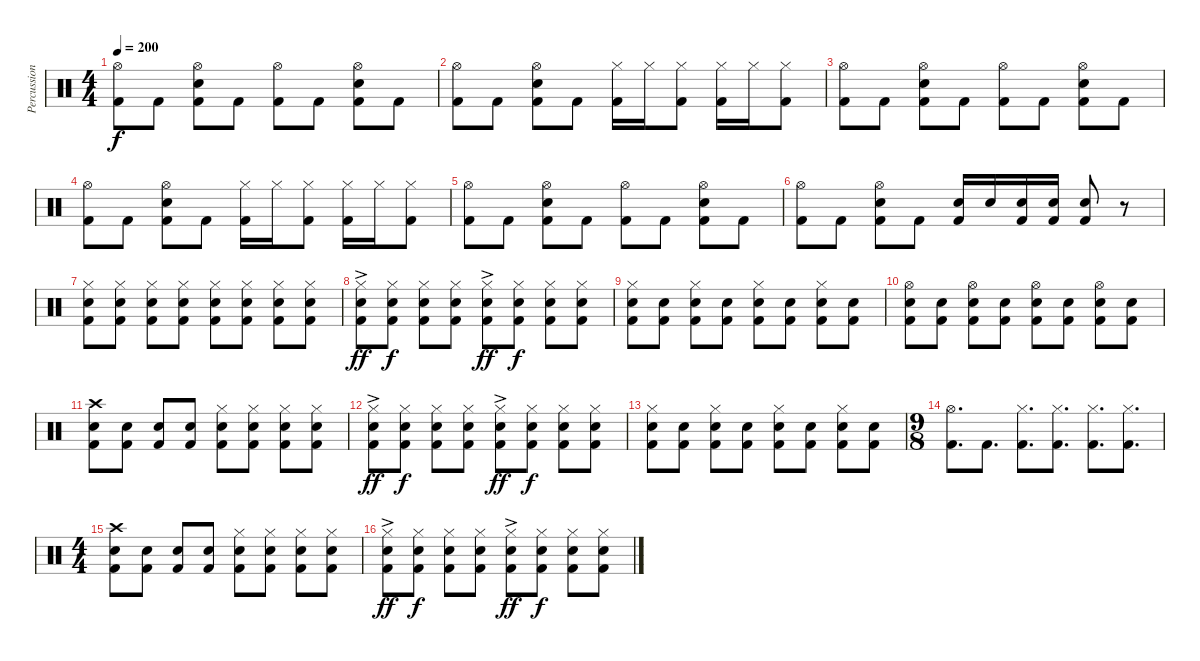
\track ("Percussions" "Percussion") {instrument percussion}
\staff {score}
\articulation defaults
\ts (4 4)
\tempo 200
\clef neutral
\ks c
("Hi-Hat (open)" "Kick (hit) 2").8{dy f} "Kick (hit) 2".8 ("Hi-Hat (open)" "Electric Snare (hit)" "Kick (hit) 2").8 "Kick (hit) 2".8 ("Hi-Hat (open)" "Kick (hit) 2").8 "Kick (hit) 2".8 ("Hi-Hat (open)" "Electric Snare (hit)" "Kick (hit) 2").8 "Kick (hit) 2".8 |
("Hi-Hat (open)" "Kick (hit) 2").8 "Kick (hit) 2".8 ("Hi-Hat (open)" "Electric Snare (hit)" "Kick (hit) 2").8 "Kick (hit) 2".8 ("Hi-Hat (closed)" "Kick (hit) 2").16 "Hi-Hat (closed)".16 ("Hi-Hat (closed)" "Kick (hit) 2").8 ("Hi-Hat (closed)" "Kick (hit) 2").16 "Hi-Hat (closed)".16 ("Hi-Hat (closed)" "Kick (hit) 2").8 |
("Hi-Hat (open)" "Kick (hit) 2").8 "Kick (hit) 2".8 ("Hi-Hat (open)" "Electric Snare (hit)" "Kick (hit) 2").8 "Kick (hit) 2".8 ("Hi-Hat (open)" "Kick (hit) 2").8 "Kick (hit) 2".8 ("Hi-Hat (open)" "Electric Snare (hit)" "Kick (hit) 2").8 "Kick (hit) 2".8 |
("Hi-Hat (open)" "Kick (hit) 2").8 "Kick (hit) 2".8 ("Hi-Hat (open)" "Electric Snare (hit)" "Kick (hit) 2").8 "Kick (hit) 2".8 ("Hi-Hat (closed)" "Kick (hit) 2").16 "Hi-Hat (closed)".16 ("Hi-Hat (closed)" "Kick (hit) 2").8 ("Hi-Hat (closed)" "Kick (hit) 2").16 "Hi-Hat (closed)".16 ("Hi-Hat (closed)" "Kick (hit) 2").8 |
("Hi-Hat (open)" "Kick (hit) 2").8 "Kick (hit) 2".8 ("Hi-Hat (open)" "Electric Snare (hit)" "Kick (hit) 2").8 "Kick (hit) 2".8 ("Hi-Hat (open)" "Kick (hit) 2").8 "Kick (hit) 2".8 ("Hi-Hat (open)" "Electric Snare (hit)" "Kick (hit) 2").8 "Kick (hit) 2".8 |
("Hi-Hat (open)" "Kick (hit) 2").8 "Kick (hit) 2".8 ("Hi-Hat (open)" "Electric Snare (hit)" "Kick (hit) 2").8 "Kick (hit) 2".8 ("Electric Snare (hit)" "Kick (hit) 2").16 "Electric Snare (hit)".16 ("Electric Snare (hit)" "Kick (hit) 2").16 ("Electric Snare (hit)" "Kick (hit) 2").16 ("Electric Snare (hit)" "Kick (hit) 2").8 r.8 |
("Hi-Hat (closed)" "Electric Snare (hit)" "Kick (hit) 2").8 ("Hi-Hat (closed)" "Electric Snare (hit)" "Kick (hit) 2").8 ("Hi-Hat (closed)" "Electric Snare (hit)" "Kick (hit) 2").8 ("Hi-Hat (closed)" "Electric Snare (hit)" "Kick (hit) 2").8 ("Hi-Hat (closed)" "Electric Snare (hit)" "Kick (hit) 2").8 ("Hi-Hat (closed)" "Electric Snare (hit)" "Kick (hit) 2").8 ("Hi-Hat (closed)" "Electric Snare (hit)" "Kick (hit) 2").8 ("Hi-Hat (closed)" "Electric Snare (hit)" "Kick (hit) 2").8 |
("Hi-Hat (closed)"{ac} "Electric Snare (hit)" "Kick (hit) 2").8{dy ff} ("Hi-Hat (closed)" "Electric Snare (hit)" "Kick (hit) 2").8{dy f} ("Hi-Hat (closed)" "Electric Snare (hit)" "Kick (hit) 2").8 ("Hi-Hat (closed)" "Electric Snare (hit)" "Kick (hit) 2").8 ("Hi-Hat (closed)"{ac} "Electric Snare (hit)" "Kick (hit) 2").8{dy ff} ("Hi-Hat (closed)" "Electric Snare (hit)" "Kick (hit) 2").8{dy f} ("Hi-Hat (closed)" "Electric Snare (hit)" "Kick (hit) 2").8 ("Hi-Hat (closed)" "Electric Snare (hit)" "Kick (hit) 2").8 |
("Hi-Hat (closed)" "Electric Snare (hit)" "Kick (hit) 2").8 ("Electric Snare (hit)" "Kick (hit) 2").8 ("Hi-Hat (closed)" "Electric Snare (hit)" "Kick (hit) 2").8 ("Electric Snare (hit)" "Kick (hit) 2").8 ("Hi-Hat (closed)" "Electric Snare (hit)" "Kick (hit) 2").8 ("Electric Snare (hit)" "Kick (hit) 2").8 ("Hi-Hat (closed)" "Electric Snare (hit)" "Kick (hit) 2").8 ("Electric Snare (hit)" "Kick (hit) 2").8 |
("Hi-Hat (open)" "Electric Snare (hit)" "Kick (hit) 2").8 ("Electric Snare (hit)" "Kick (hit) 2").8 ("Hi-Hat (open)" "Electric Snare (hit)" "Kick (hit) 2").8 ("Electric Snare (hit)" "Kick (hit) 2").8 ("Hi-Hat (open)" "Electric Snare (hit)" "Kick (hit) 2").8 ("Electric Snare (hit)" "Kick (hit) 2").8 ("Hi-Hat (open)" "Electric Snare (hit)" "Kick (hit) 2").8 ("Electric Snare (hit)" "Kick (hit) 2").8 |
("Crash high (hit)" "Electric Snare (hit)" "Kick (hit) 2").8 ("Electric Snare (hit)" "Kick (hit) 2").8 ("Electric Snare (hit)" "Kick (hit) 2").8 ("Electric Snare (hit)" "Kick (hit) 2").8 ("Hi-Hat (closed)" "Electric Snare (hit)" "Kick (hit) 2").8 ("Hi-Hat (closed)" "Electric Snare (hit)" "Kick (hit) 2").8 ("Hi-Hat (closed)" "Electric Snare (hit)" "Kick (hit) 2").8 ("Hi-Hat (closed)" "Electric Snare (hit)" "Kick (hit) 2").8 |
("Hi-Hat (closed)"{ac} "Electric Snare (hit)" "Kick (hit) 2").8{dy ff} ("Hi-Hat (closed)" "Electric Snare (hit)" "Kick (hit) 2").8{dy f} ("Hi-Hat (closed)" "Electric Snare (hit)" "Kick (hit) 2").8 ("Hi-Hat (closed)" "Electric Snare (hit)" "Kick (hit) 2").8 ("Hi-Hat (closed)"{ac} "Electric Snare (hit)" "Kick (hit) 2").8{dy ff} ("Hi-Hat (closed)" "Electric Snare (hit)" "Kick (hit) 2").8{dy f} ("Hi-Hat (closed)" "Electric Snare (hit)" "Kick (hit) 2").8 ("Hi-Hat (closed)" "Electric Snare (hit)" "Kick (hit) 2").8 |
("Hi-Hat (closed)" "Electric Snare (hit)" "Kick (hit) 2").8 ("Electric Snare (hit)" "Kick (hit) 2").8 ("Hi-Hat (closed)" "Electric Snare (hit)" "Kick (hit) 2").8 ("Electric Snare (hit)" "Kick (hit) 2").8 ("Hi-Hat (closed)" "Electric Snare (hit)" "Kick (hit) 2").8 ("Electric Snare (hit)" "Kick (hit) 2").8 ("Hi-Hat (closed)" "Electric Snare (hit)" "Kick (hit) 2").8 ("Electric Snare (hit)" "Kick (hit) 2").8 |
\ts (9 8)
("Hi-Hat (open)" "Kick (hit) 2").8{d} "Kick (hit) 2".8{d} ("Hi-Hat (closed)" "Kick (hit) 2").8{d} ("Hi-Hat (closed)" "Kick (hit) 2").8{d} ("Hi-Hat (closed)" "Kick (hit) 2").8{d} ("Hi-Hat (closed)" "Kick (hit) 2").8{d} |
\ts (4 4)
("Crash high (hit)" "Electric Snare (hit)" "Kick (hit) 2").8 ("Electric Snare (hit)" "Kick (hit) 2").8 ("Electric Snare (hit)" "Kick (hit) 2").8 ("Electric Snare (hit)" "Kick (hit) 2").8 ("Hi-Hat (closed)" "Electric Snare (hit)" "Kick (hit) 2").8 ("Hi-Hat (closed)" "Electric Snare (hit)" "Kick (hit) 2").8 ("Hi-Hat (closed)" "Electric Snare (hit)" "Kick (hit) 2").8 ("Hi-Hat (closed)" "Electric Snare (hit)" "Kick (hit) 2").8 |
("Hi-Hat (closed)"{ac} "Electric Snare (hit)" "Kick (hit) 2").8{dy ff} ("Hi-Hat (closed)" "Electric Snare (hit)" "Kick (hit) 2").8{dy f} ("Hi-Hat (closed)" "Electric Snare (hit)" "Kick (hit) 2").8 ("Hi-Hat (closed)" "Electric Snare (hit)" "Kick (hit) 2").8 ("Hi-Hat (closed)"{ac} "Electric Snare (hit)" "Kick (hit) 2").8{dy ff} ("Hi-Hat (closed)" "Electric Snare (hit)" "Kick (hit) 2").8{dy f} ("Hi-Hat (closed)" "Electric Snare (hit)" "Kick (hit) 2").8 ("Hi-Hat (closed)" "Electric Snare (hit)" "Kick (hit) 2").8
